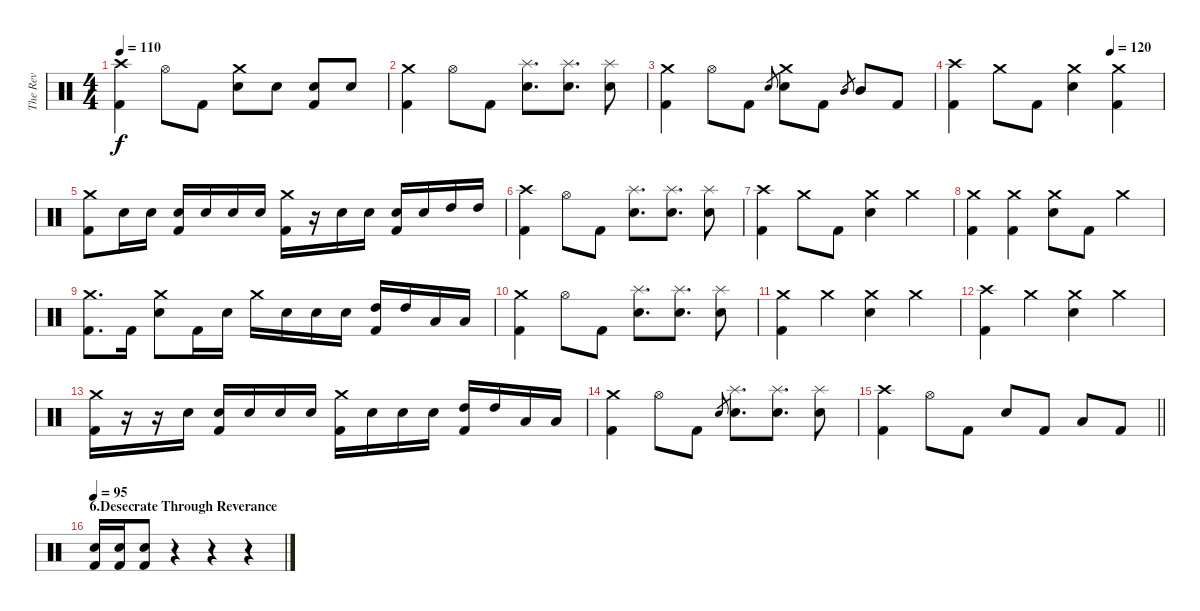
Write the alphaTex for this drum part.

\track ("The Rev" "The Rev") {instrument percussion}
\staff {score}
\articulation defaults
\ts (4 4)
\tempo 110
\clef neutral
\ks c
("Crash high (hit)" "Kick (hit) 2").4{dy f} "Hi-Hat (open)".8 "Kick (hit) 2".8 ("Crash medium (hit)" "Electric Snare (hit)").8 "Electric Snare (hit)".8 ("Electric Snare (hit)" "Kick (hit) 2").8 "Electric Snare (hit)".8 |
("Crash medium (hit)" "Kick (hit) 2").4 "Hi-Hat (open)".8 "Kick (hit) 2".8 ("Splash (hit)" "Electric Snare (hit)").8{d} ("Splash (hit)" "Electric Snare (hit)").8{d} ("Splash (hit)" "Electric Snare (hit)").8 |
("Crash medium (hit)" "Kick (hit) 2").4 "Hi-Hat (open)".8 "Kick (hit) 2".8 "Electric Snare (hit)".8{gr} ("Crash medium (hit)" "Electric Snare (hit)").8 "Kick (hit) 2".8 "Mid Tom (hit)".8{gr} "Mid Tom (hit)".8 "Kick (hit) 2".8 |
\tempo (120 0.75)
("Crash high (hit)" "Kick (hit) 2").4 "Crash medium (hit)".8 "Kick (hit) 2".8 ("Crash medium (hit)" "Electric Snare (hit)").4 ("Crash medium (hit)" "Kick (hit) 2").4 |
("Crash medium (hit)" "Kick (hit) 2").8 "Electric Snare (hit)".16 "Electric Snare (hit)".16 ("Electric Snare (hit)" "Kick (hit) 2").16 "Electric Snare (hit)".16 "Electric Snare (hit)".16 "Electric Snare (hit)".16 ("Crash medium (hit)" "Kick (hit) 2").16 r.16 "Electric Snare (hit)".16 "Electric Snare (hit)".16 ("Electric Snare (hit)" "Kick (hit) 2").16 "Electric Snare (hit)".16 "High Tom (hit)".16 "High Tom (hit)".16 |
("Crash high (hit)" "Kick (hit) 2").4 "Hi-Hat (open)".8 "Kick (hit) 2".8 ("Splash (hit)" "Electric Snare (hit)").8{d} ("Splash (hit)" "Electric Snare (hit)").8{d} ("Splash (hit)" "Electric Snare (hit)").8 |
("Crash high (hit)" "Kick (hit) 2").4 "Crash medium (hit)".8 "Kick (hit) 2".8 ("Crash medium (hit)" "Electric Snare (hit)").4 "Crash medium (hit)".4 |
("Crash medium (hit)" "Kick (hit) 2").4 ("Crash medium (hit)" "Kick (hit) 2").4 ("Crash medium (hit)" "Electric Snare (hit)").8 "Kick (hit) 2".8 "Crash medium (hit)".4 |
("Crash medium (hit)" "Kick (hit) 2").8{d} "Kick (hit) 2".16 ("Crash medium (hit)" "Electric Snare (hit)").8 "Kick (hit) 2".16 "Electric Snare (hit)".16 "Crash medium (hit)".16 "Electric Snare (hit)".16 "Electric Snare (hit)".16 "Electric Snare (hit)".16 ("High Tom (hit)" "Kick (hit) 2").16 "High Tom (hit)".16 "Low Tom (hit)".16 "Low Tom (hit)".16 |
("Crash medium (hit)" "Kick (hit) 2").4 "Hi-Hat (open)".8 "Kick (hit) 2".8 ("Splash (hit)" "Electric Snare (hit)").8{d} ("Splash (hit)" "Electric Snare (hit)").8{d} ("Splash (hit)" "Electric Snare (hit)").8 |
("Crash medium (hit)" "Kick (hit) 2").4 "Crash medium (hit)".4 ("Crash medium (hit)" "Electric Snare (hit)").4 "Crash medium (hit)".4 |
("Crash high (hit)" "Kick (hit) 2").4 "Crash medium (hit)".4 ("Crash medium (hit)" "Electric Snare (hit)").4 "Crash medium (hit)".4 |
("Crash medium (hit)" "Kick (hit) 2").16 r.16 r.16 "Electric Snare (hit)".16 ("Electric Snare (hit)" "Kick (hit) 2").16 "Electric Snare (hit)".16 "Electric Snare (hit)".16 "Electric Snare (hit)".16 ("Crash medium (hit)" "Kick (hit) 2").16 "Electric Snare (hit)".16 "Electric Snare (hit)".16 "Electric Snare (hit)".16 ("High Tom (hit)" "Kick (hit) 2").16 "High Tom (hit)".16 "Low Tom (hit)".16 "Low Tom (hit)".16 |
("Crash medium (hit)" "Kick (hit) 2").4 "Hi-Hat (open)".8 "Kick (hit) 2".8 "Electric Snare (hit)".8{gr} ("Splash (hit)" "Electric Snare (hit)").8{d} ("Splash (hit)" "Electric Snare (hit)").8{d} ("Splash (hit)" "Electric Snare (hit)").8 |
\barLineRight lightlight
("Crash high (hit)" "Kick (hit) 2").4 "Hi-Hat (open)".8 "Kick (hit) 2".8 "Electric Snare (hit)".8 "Kick (hit) 2".8 "Low Tom (hit)".8 "Kick (hit) 2".8 |
\section ("" "6.Desecrate Through Reverance")
\tempo 95
("Electric Snare (hit)" "Kick (hit) 2").16 ("Electric Snare (hit)" "Kick (hit) 2").16 ("Electric Snare (hit)" "Kick (hit) 2").8 r.4 r.4 r.4
